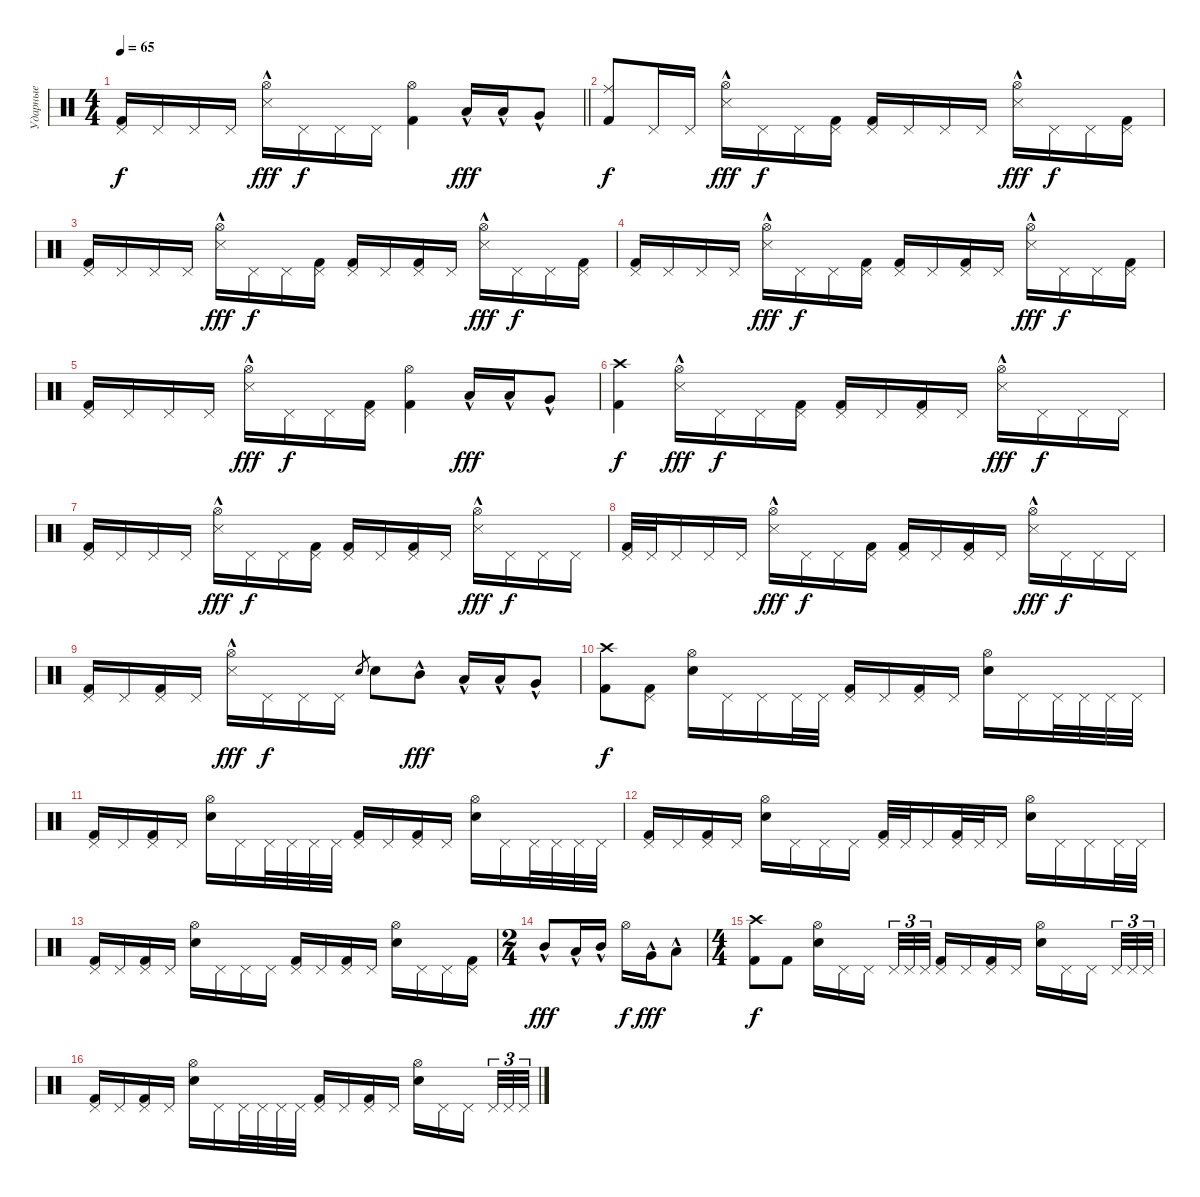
\track ("Ударные" "Ударные") {instrument percussion}
\staff {score}
\articulation defaults
\ts (4 4)
\tempo 65
\clef neutral
\barLineRight lightlight
\ks c
("Kick (hit) 2" "Pedal Hi-Hat (hit)").16{dy f} "Pedal Hi-Hat (hit)".16 "Pedal Hi-Hat (hit)".16 "Pedal Hi-Hat (hit)".16 ("Snare (side stick) 3"{hac} "Hi-Hat (open)").16{dy fff} "Pedal Hi-Hat (hit)".16{dy f} "Pedal Hi-Hat (hit)".16 "Pedal Hi-Hat (hit)".16 ("Kick (hit) 2" "Hi-Hat (open)").4 "Low Tom (hit)"{hac}.16{dy fff} "Low Tom (hit)"{hac}.16 "Very Low Tom (hit)"{hac}.8 |
("Kick (hit) 2" "Ride (middle)").8{dy f} "Pedal Hi-Hat (hit)".16 "Pedal Hi-Hat (hit)".16 ("Snare (side stick) 3"{hac} "Hi-Hat (open)").16{dy fff} "Pedal Hi-Hat (hit)".16{dy f} "Pedal Hi-Hat (hit)".16 ("Kick (hit) 2" "Pedal Hi-Hat (hit)").16 ("Kick (hit) 2" "Pedal Hi-Hat (hit)").16 "Pedal Hi-Hat (hit)".16 "Pedal Hi-Hat (hit)".16 "Pedal Hi-Hat (hit)".16 ("Snare (side stick) 3"{hac} "Hi-Hat (open)").16{dy fff} "Pedal Hi-Hat (hit)".16{dy f} "Pedal Hi-Hat (hit)".16 ("Kick (hit) 2" "Pedal Hi-Hat (hit)").16 |
("Kick (hit) 2" "Pedal Hi-Hat (hit)").16 "Pedal Hi-Hat (hit)".16 "Pedal Hi-Hat (hit)".16 "Pedal Hi-Hat (hit)".16 ("Snare (side stick) 3"{hac} "Hi-Hat (open)").16{dy fff} "Pedal Hi-Hat (hit)".16{dy f} "Pedal Hi-Hat (hit)".16 ("Kick (hit) 2" "Pedal Hi-Hat (hit)").16 ("Kick (hit) 2" "Pedal Hi-Hat (hit)").16 "Pedal Hi-Hat (hit)".16 ("Kick (hit) 2" "Pedal Hi-Hat (hit)").16 "Pedal Hi-Hat (hit)".16 ("Snare (side stick) 3"{hac} "Hi-Hat (open)").16{dy fff} "Pedal Hi-Hat (hit)".16{dy f} "Pedal Hi-Hat (hit)".16 ("Kick (hit) 2" "Pedal Hi-Hat (hit)").16 |
("Kick (hit) 2" "Pedal Hi-Hat (hit)").16 "Pedal Hi-Hat (hit)".16 "Pedal Hi-Hat (hit)".16 "Pedal Hi-Hat (hit)".16 ("Snare (side stick) 3"{hac} "Hi-Hat (open)").16{dy fff} "Pedal Hi-Hat (hit)".16{dy f} "Pedal Hi-Hat (hit)".16 ("Kick (hit) 2" "Pedal Hi-Hat (hit)").16 ("Kick (hit) 2" "Pedal Hi-Hat (hit)").16 "Pedal Hi-Hat (hit)".16 ("Kick (hit) 2" "Pedal Hi-Hat (hit)").16 "Pedal Hi-Hat (hit)".16 ("Snare (side stick) 3"{hac} "Hi-Hat (open)").16{dy fff} "Pedal Hi-Hat (hit)".16{dy f} "Pedal Hi-Hat (hit)".16 ("Kick (hit) 2" "Pedal Hi-Hat (hit)").16 |
("Kick (hit) 2" "Pedal Hi-Hat (hit)").16 "Pedal Hi-Hat (hit)".16 "Pedal Hi-Hat (hit)".16 "Pedal Hi-Hat (hit)".16 ("Snare (side stick) 3"{hac} "Hi-Hat (open)").16{dy fff} "Pedal Hi-Hat (hit)".16{dy f} "Pedal Hi-Hat (hit)".16 ("Kick (hit) 2" "Pedal Hi-Hat (hit)").16 ("Kick (hit) 2" "Hi-Hat (open)").4 "Low Tom (hit)"{hac}.16{dy fff} "Low Tom (hit)"{hac}.16 "Very Low Tom (hit)"{hac}.8 |
("Kick (hit) 2" "Crash high (hit)").4{dy f} ("Snare (side stick) 3"{hac} "Hi-Hat (open)").16{dy fff} "Pedal Hi-Hat (hit)".16{dy f} "Pedal Hi-Hat (hit)".16 ("Kick (hit) 2" "Pedal Hi-Hat (hit)").16 ("Kick (hit) 2" "Pedal Hi-Hat (hit)").16 "Pedal Hi-Hat (hit)".16 ("Kick (hit) 2" "Pedal Hi-Hat (hit)").16 "Pedal Hi-Hat (hit)".16 ("Snare (side stick) 3"{hac} "Hi-Hat (open)").16{dy fff} "Pedal Hi-Hat (hit)".16{dy f} "Pedal Hi-Hat (hit)".16 "Pedal Hi-Hat (hit)".16 |
("Kick (hit) 2" "Pedal Hi-Hat (hit)").16 "Pedal Hi-Hat (hit)".16 "Pedal Hi-Hat (hit)".16 "Pedal Hi-Hat (hit)".16 ("Snare (side stick) 3"{hac} "Hi-Hat (open)").16{dy fff} "Pedal Hi-Hat (hit)".16{dy f} "Pedal Hi-Hat (hit)".16 ("Kick (hit) 2" "Pedal Hi-Hat (hit)").16 ("Kick (hit) 2" "Pedal Hi-Hat (hit)").16 "Pedal Hi-Hat (hit)".16 ("Kick (hit) 2" "Pedal Hi-Hat (hit)").16 "Pedal Hi-Hat (hit)".16 ("Snare (side stick) 3"{hac} "Hi-Hat (open)").16{dy fff} "Pedal Hi-Hat (hit)".16{dy f} "Pedal Hi-Hat (hit)".16 "Pedal Hi-Hat (hit)".16 |
("Kick (hit) 2" "Pedal Hi-Hat (hit)").32 "Pedal Hi-Hat (hit)".32 "Pedal Hi-Hat (hit)".16 "Pedal Hi-Hat (hit)".16 "Pedal Hi-Hat (hit)".16 ("Snare (side stick) 3"{hac} "Hi-Hat (open)").16{dy fff} "Pedal Hi-Hat (hit)".16{dy f} "Pedal Hi-Hat (hit)".16 ("Kick (hit) 2" "Pedal Hi-Hat (hit)").16 ("Kick (hit) 2" "Pedal Hi-Hat (hit)").16 "Pedal Hi-Hat (hit)".16 ("Kick (hit) 2" "Pedal Hi-Hat (hit)").16 "Pedal Hi-Hat (hit)".16 ("Snare (side stick) 3"{hac} "Hi-Hat (open)").16{dy fff} "Pedal Hi-Hat (hit)".16{dy f} "Pedal Hi-Hat (hit)".16 "Pedal Hi-Hat (hit)".16 |
("Kick (hit) 2" "Pedal Hi-Hat (hit)").16 "Pedal Hi-Hat (hit)".16 ("Kick (hit) 2" "Pedal Hi-Hat (hit)").16 "Pedal Hi-Hat (hit)".16 ("Snare (side stick) 3"{hac} "Hi-Hat (open)").16{dy fff} "Pedal Hi-Hat (hit)".16{dy f} "Pedal Hi-Hat (hit)".16 "Pedal Hi-Hat (hit)".16 "Snare (hit) 2".8{gr} "Snare (hit) 2".8 "Mid Tom (hit)"{hac}.8{dy fff} "Low Tom (hit)"{hac}.16 "Low Tom (hit)"{hac}.16 "Very Low Tom (hit)"{hac}.8 |
("Kick (hit) 2" "Crash high (hit)").8{dy f} ("Kick (hit) 2" "Pedal Hi-Hat (hit)").8 ("Snare (hit) 2" "Hi-Hat (open)").16 "Pedal Hi-Hat (hit)".16 "Pedal Hi-Hat (hit)".16 "Pedal Hi-Hat (hit)".32 "Pedal Hi-Hat (hit)".32 ("Kick (hit) 2" "Pedal Hi-Hat (hit)").16 "Pedal Hi-Hat (hit)".16 ("Kick (hit) 2" "Pedal Hi-Hat (hit)").16 "Pedal Hi-Hat (hit)".16 ("Snare (hit) 2" "Hi-Hat (open)").16 "Pedal Hi-Hat (hit)".16 "Pedal Hi-Hat (hit)".32 "Pedal Hi-Hat (hit)".32 "Pedal Hi-Hat (hit)".32 "Pedal Hi-Hat (hit)".32 |
("Kick (hit) 2" "Pedal Hi-Hat (hit)").16 "Pedal Hi-Hat (hit)".16 ("Kick (hit) 2" "Pedal Hi-Hat (hit)").16 "Pedal Hi-Hat (hit)".16 ("Snare (hit) 2" "Hi-Hat (open)").16 "Pedal Hi-Hat (hit)".16 "Pedal Hi-Hat (hit)".32 "Pedal Hi-Hat (hit)".32 "Pedal Hi-Hat (hit)".32 "Pedal Hi-Hat (hit)".32 ("Kick (hit) 2" "Pedal Hi-Hat (hit)").16 "Pedal Hi-Hat (hit)".16 ("Kick (hit) 2" "Pedal Hi-Hat (hit)").16 "Pedal Hi-Hat (hit)".16 ("Snare (hit) 2" "Hi-Hat (open)").16 "Pedal Hi-Hat (hit)".16 "Pedal Hi-Hat (hit)".32 "Pedal Hi-Hat (hit)".32 "Pedal Hi-Hat (hit)".32 "Pedal Hi-Hat (hit)".32 |
("Kick (hit) 2" "Pedal Hi-Hat (hit)").16 "Pedal Hi-Hat (hit)".16 ("Kick (hit) 2" "Pedal Hi-Hat (hit)").16 "Pedal Hi-Hat (hit)".16 ("Snare (hit) 2" "Hi-Hat (open)").16 "Pedal Hi-Hat (hit)".16 "Pedal Hi-Hat (hit)".16 "Pedal Hi-Hat (hit)".16 ("Kick (hit) 2" "Pedal Hi-Hat (hit)").32 "Pedal Hi-Hat (hit)".32 "Pedal Hi-Hat (hit)".16 ("Kick (hit) 2" "Pedal Hi-Hat (hit)").32 "Pedal Hi-Hat (hit)".32 "Pedal Hi-Hat (hit)".16 ("Snare (hit) 2" "Hi-Hat (open)").16 "Pedal Hi-Hat (hit)".16 "Pedal Hi-Hat (hit)".16 "Pedal Hi-Hat (hit)".32 "Pedal Hi-Hat (hit)".32 |
("Kick (hit) 2" "Pedal Hi-Hat (hit)").16 "Pedal Hi-Hat (hit)".16 ("Kick (hit) 2" "Pedal Hi-Hat (hit)").16 "Pedal Hi-Hat (hit)".16 ("Snare (hit) 2" "Hi-Hat (open)").16 "Pedal Hi-Hat (hit)".16 "Pedal Hi-Hat (hit)".16 "Pedal Hi-Hat (hit)".16 ("Kick (hit) 2" "Pedal Hi-Hat (hit)").16 "Pedal Hi-Hat (hit)".16 ("Kick (hit) 2" "Pedal Hi-Hat (hit)").16 "Pedal Hi-Hat (hit)".16 ("Snare (hit) 2" "Hi-Hat (open)").16 "Pedal Hi-Hat (hit)".16 "Pedal Hi-Hat (hit)".16 ("Kick (hit) 2" "Pedal Hi-Hat (hit)").16 |
\ts (2 4)
"Mid Tom (hit)"{hac}.8{dy fff} "Low Tom (hit)"{hac}.16 "Mid Tom (hit)"{hac}.16 "Hi-Hat (open)".16{dy f} "Very Low Tom (hit)"{hac}.16{dy fff} "Low Floor Tom (hit)"{hac}.8 |
\ts (4 4)
("Kick (hit) 2" "Crash high (hit)").8{dy f} "Kick (hit) 2".8 ("Snare (hit) 2" "Hi-Hat (open)").16 "Pedal Hi-Hat (hit)".16 "Pedal Hi-Hat (hit)".16{beam splitsecondary} "Pedal Hi-Hat (hit)".32{tu (3 2)} "Pedal Hi-Hat (hit)".32{tu (3 2)} "Pedal Hi-Hat (hit)".32{tu (3 2)} ("Kick (hit) 2" "Pedal Hi-Hat (hit)").16 "Pedal Hi-Hat (hit)".16 ("Kick (hit) 2" "Pedal Hi-Hat (hit)").16 "Pedal Hi-Hat (hit)".16 ("Snare (hit) 2" "Hi-Hat (open)").16 "Pedal Hi-Hat (hit)".16 "Pedal Hi-Hat (hit)".16{beam splitsecondary} "Pedal Hi-Hat (hit)".32{tu (3 2)} "Pedal Hi-Hat (hit)".32{tu (3 2)} "Pedal Hi-Hat (hit)".32{tu (3 2)} |
("Kick (hit) 2" "Pedal Hi-Hat (hit)").16 "Pedal Hi-Hat (hit)".16 ("Kick (hit) 2" "Pedal Hi-Hat (hit)").16 "Pedal Hi-Hat (hit)".16 ("Snare (hit) 2" "Hi-Hat (open)").16 "Pedal Hi-Hat (hit)".16 "Pedal Hi-Hat (hit)".32 "Pedal Hi-Hat (hit)".32 "Pedal Hi-Hat (hit)".32 "Pedal Hi-Hat (hit)".32 ("Kick (hit) 2" "Pedal Hi-Hat (hit)").16 "Pedal Hi-Hat (hit)".16 ("Kick (hit) 2" "Pedal Hi-Hat (hit)").16 "Pedal Hi-Hat (hit)".16 ("Snare (hit) 2" "Hi-Hat (open)").16 "Pedal Hi-Hat (hit)".16 "Pedal Hi-Hat (hit)".16{beam splitsecondary} "Pedal Hi-Hat (hit)".32{tu (3 2)} "Pedal Hi-Hat (hit)".32{tu (3 2)} "Pedal Hi-Hat (hit)".32{tu (3 2)}
